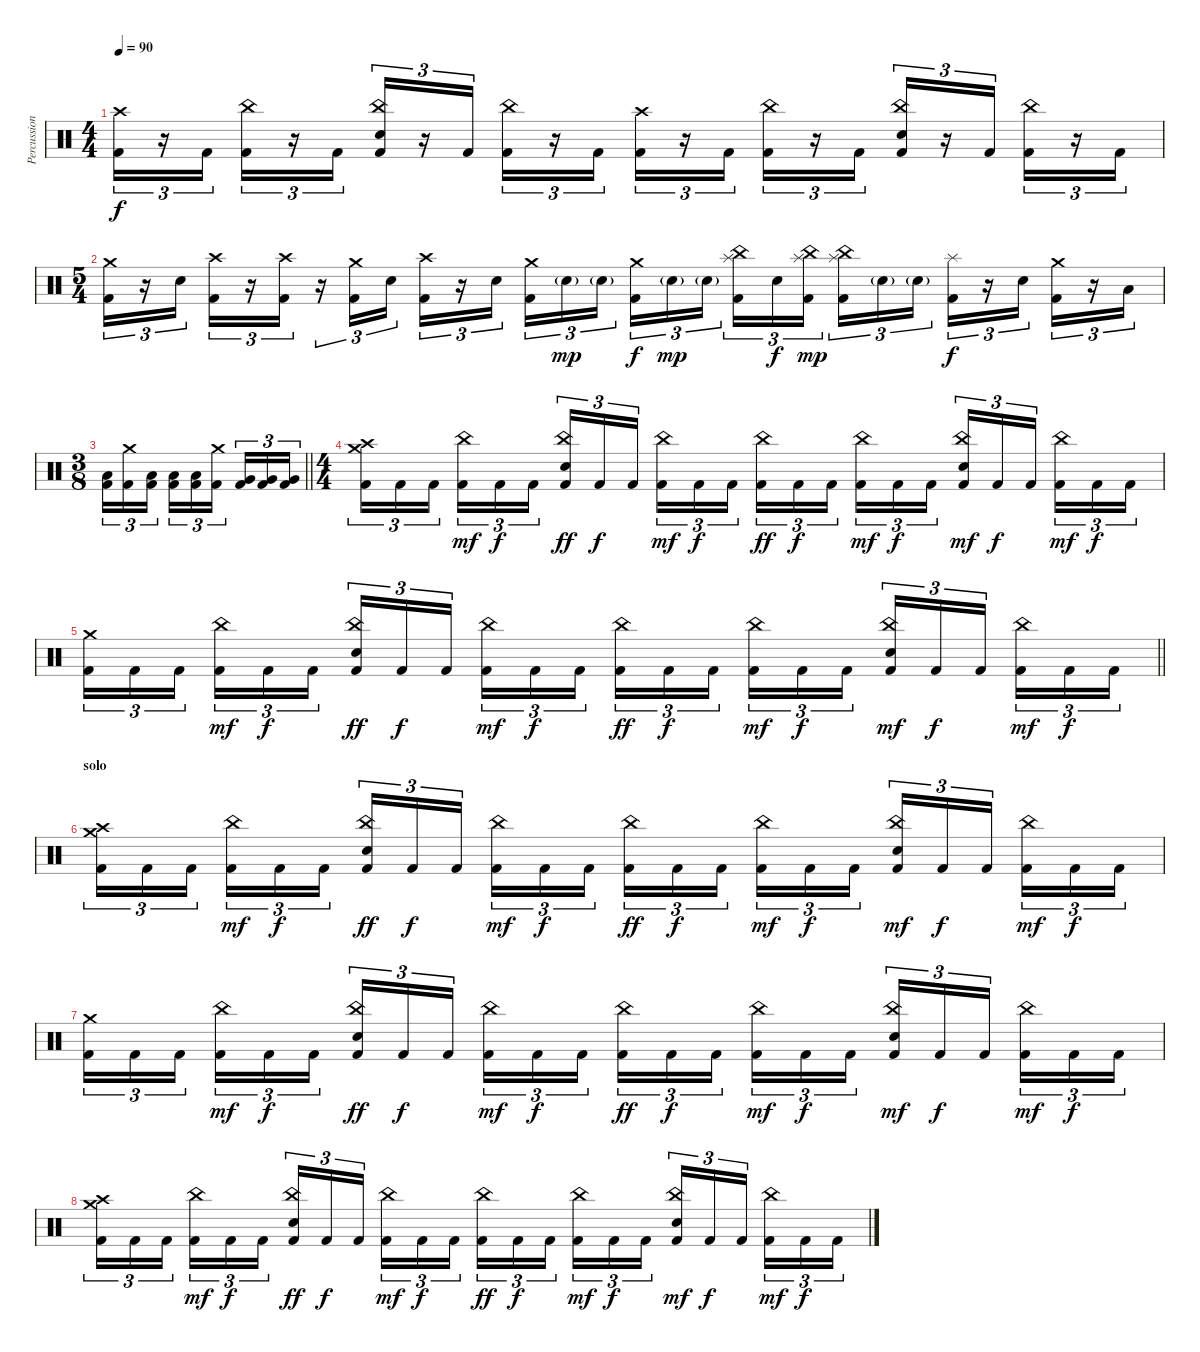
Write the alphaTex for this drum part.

\track ("Percussion" "Percussion") {instrument percussion}
\staff {score}
\articulation defaults
\ts (4 4)
\tempo 90
\clef neutral
\ks c
("Crash high (hit)" "Kick (hit) 2").16{tu (3 2) dy f} r.16{tu (3 2)} "Kick (hit) 2".16{tu (3 2)} ("China (hit)" "Kick (hit) 2").16{tu (3 2)} r.16{tu (3 2)} "Kick (hit) 2".16{tu (3 2)} ("China (hit)" "Electric Snare (hit)" "Kick (hit) 2").16{tu (3 2)} r.16{tu (3 2)} "Kick (hit) 2".16{tu (3 2)} ("China (hit)" "Kick (hit) 2").16{tu (3 2)} r.16{tu (3 2)} "Kick (hit) 2".16{tu (3 2)} ("Crash high (hit)" "Kick (hit) 2").16{tu (3 2)} r.16{tu (3 2)} "Kick (hit) 2".16{tu (3 2)} ("China (hit)" "Kick (hit) 2").16{tu (3 2)} r.16{tu (3 2)} "Kick (hit) 2".16{tu (3 2)} ("China (hit)" "Electric Snare (hit)" "Kick (hit) 2").16{tu (3 2)} r.16{tu (3 2)} "Kick (hit) 2".16{tu (3 2)} ("China (hit)" "Kick (hit) 2").16{tu (3 2)} r.16{tu (3 2)} "Kick (hit) 2".16{tu (3 2)} |
\ts (5 4)
("Crash medium (hit)" "Kick (hit) 2").16{tu (3 2)} r.16{tu (3 2)} "Electric Snare (hit)".16{tu (3 2)} ("Crash high (hit)" "Kick (hit) 2").16{tu (3 2)} r.16{tu (3 2)} ("Crash high (hit)" "Kick (hit) 2").16{tu (3 2)} r.16{tu (3 2)} ("Crash medium (hit)" "Kick (hit) 2").16{tu (3 2)} "Electric Snare (hit)".16{tu (3 2) beam splitsecondary} ("Crash high (hit)" "Kick (hit) 2").16{tu (3 2)} r.16{tu (3 2)} "Electric Snare (hit)".16{tu (3 2)} ("Crash medium (hit)" "Kick (hit) 2").16{tu (3 2)} "Electric Snare (hit)"{g}.16{tu (3 2) dy mp} "Electric Snare (hit)"{g}.16{tu (3 2) beam splitsecondary} ("Crash medium (hit)" "Kick (hit) 2").16{tu (3 2) dy f} "Electric Snare (hit)"{g}.16{tu (3 2) dy mp} "Electric Snare (hit)"{g}.16{tu (3 2)} ("Splash (hit)" "China (hit)" "Kick (hit) 2").16{tu (3 2)} "Electric Snare (hit)".16{tu (3 2) dy f} ("China (hit)" "Splash (hit)" "Kick (hit) 2").16{tu (3 2) dy mp beam splitsecondary} ("China (hit)" "Splash (hit)" "Kick (hit) 2").16{tu (3 2)} "Electric Snare (hit)"{g}.16{tu (3 2)} "Electric Snare (hit)"{g}.16{tu (3 2)} ("Splash (hit)" "Kick (hit) 2").16{tu (3 2) dy f} r.16{tu (3 2)} "Electric Snare (hit)".16{tu (3 2)} ("Crash medium (hit)" "Kick (hit) 2").16{tu (3 2)} r.16{tu (3 2)} "Low Tom (hit)".16{tu (3 2)} |
\ts (3 8)
\barLineRight lightlight
("Low Tom (hit)" "Kick (hit) 2").16{tu (3 2)} ("Crash medium (hit)" "Kick (hit) 2").16{tu (3 2)} ("Low Tom (hit)" "Kick (hit) 2").16{tu (3 2)} ("Low Tom (hit)" "Kick (hit) 2").16{tu (3 2)} ("Low Tom (hit)" "Kick (hit) 2").16{tu (3 2)} ("Crash medium (hit)" "Kick (hit) 2").16{tu (3 2)} ("Very Low Tom (hit)" "Kick (hit) 2").16{tu (3 2)} ("Very Low Tom (hit)" "Kick (hit) 2").16{tu (3 2)} ("Very Low Tom (hit)" "Kick (hit) 2").16{tu (3 2)} |
\ts (4 4)
("Crash medium (hit)" "Crash high (hit)" "Kick (hit) 2").16{tu (3 2)} "Kick (hit) 2".16{tu (3 2)} "Kick (hit) 2".16{tu (3 2) beam splitsecondary} ("China (hit)" "Kick (hit) 2").16{tu (3 2) dy mf} "Kick (hit) 2".16{tu (3 2) dy f} "Kick (hit) 2".16{tu (3 2)} ("China (hit)" "Electric Snare (hit)" "Kick (hit) 2").16{tu (3 2) dy ff} "Kick (hit) 2".16{tu (3 2) dy f} "Kick (hit) 2".16{tu (3 2) beam splitsecondary} ("China (hit)" "Kick (hit) 2").16{tu (3 2) dy mf} "Kick (hit) 2".16{tu (3 2) dy f} "Kick (hit) 2".16{tu (3 2)} ("China (hit)" "Kick (hit) 2").16{tu (3 2) dy ff} "Kick (hit) 2".16{tu (3 2) dy f} "Kick (hit) 2".16{tu (3 2) beam splitsecondary} ("China (hit)" "Kick (hit) 2").16{tu (3 2) dy mf} "Kick (hit) 2".16{tu (3 2) dy f} "Kick (hit) 2".16{tu (3 2)} ("China (hit)" "Electric Snare (hit)" "Kick (hit) 2").16{tu (3 2) dy mf} "Kick (hit) 2".16{tu (3 2) dy f} "Kick (hit) 2".16{tu (3 2) beam splitsecondary} ("China (hit)" "Kick (hit) 2").16{tu (3 2) dy mf} "Kick (hit) 2".16{tu (3 2) dy f} "Kick (hit) 2".16{tu (3 2)} |
\barLineRight lightlight
("Crash medium (hit)" "Kick (hit) 2").16{tu (3 2)} "Kick (hit) 2".16{tu (3 2)} "Kick (hit) 2".16{tu (3 2) beam splitsecondary} ("China (hit)" "Kick (hit) 2").16{tu (3 2) dy mf} "Kick (hit) 2".16{tu (3 2) dy f} "Kick (hit) 2".16{tu (3 2)} ("China (hit)" "Electric Snare (hit)" "Kick (hit) 2").16{tu (3 2) dy ff} "Kick (hit) 2".16{tu (3 2) dy f} "Kick (hit) 2".16{tu (3 2) beam splitsecondary} ("China (hit)" "Kick (hit) 2").16{tu (3 2) dy mf} "Kick (hit) 2".16{tu (3 2) dy f} "Kick (hit) 2".16{tu (3 2)} ("China (hit)" "Kick (hit) 2").16{tu (3 2) dy ff} "Kick (hit) 2".16{tu (3 2) dy f} "Kick (hit) 2".16{tu (3 2) beam splitsecondary} ("China (hit)" "Kick (hit) 2").16{tu (3 2) dy mf} "Kick (hit) 2".16{tu (3 2) dy f} "Kick (hit) 2".16{tu (3 2)} ("China (hit)" "Electric Snare (hit)" "Kick (hit) 2").16{tu (3 2) dy mf} "Kick (hit) 2".16{tu (3 2) dy f} "Kick (hit) 2".16{tu (3 2) beam splitsecondary} ("China (hit)" "Kick (hit) 2").16{tu (3 2) dy mf} "Kick (hit) 2".16{tu (3 2) dy f} "Kick (hit) 2".16{tu (3 2)} |
\section ("" "solo")
("Crash medium (hit)" "Crash high (hit)" "Kick (hit) 2").16{tu (3 2)} "Kick (hit) 2".16{tu (3 2)} "Kick (hit) 2".16{tu (3 2) beam splitsecondary} ("China (hit)" "Kick (hit) 2").16{tu (3 2) dy mf} "Kick (hit) 2".16{tu (3 2) dy f} "Kick (hit) 2".16{tu (3 2)} ("China (hit)" "Electric Snare (hit)" "Kick (hit) 2").16{tu (3 2) dy ff} "Kick (hit) 2".16{tu (3 2) dy f} "Kick (hit) 2".16{tu (3 2) beam splitsecondary} ("China (hit)" "Kick (hit) 2").16{tu (3 2) dy mf} "Kick (hit) 2".16{tu (3 2) dy f} "Kick (hit) 2".16{tu (3 2)} ("China (hit)" "Kick (hit) 2").16{tu (3 2) dy ff} "Kick (hit) 2".16{tu (3 2) dy f} "Kick (hit) 2".16{tu (3 2) beam splitsecondary} ("China (hit)" "Kick (hit) 2").16{tu (3 2) dy mf} "Kick (hit) 2".16{tu (3 2) dy f} "Kick (hit) 2".16{tu (3 2)} ("China (hit)" "Electric Snare (hit)" "Kick (hit) 2").16{tu (3 2) dy mf} "Kick (hit) 2".16{tu (3 2) dy f} "Kick (hit) 2".16{tu (3 2) beam splitsecondary} ("China (hit)" "Kick (hit) 2").16{tu (3 2) dy mf} "Kick (hit) 2".16{tu (3 2) dy f} "Kick (hit) 2".16{tu (3 2)} |
("Crash medium (hit)" "Kick (hit) 2").16{tu (3 2)} "Kick (hit) 2".16{tu (3 2)} "Kick (hit) 2".16{tu (3 2) beam splitsecondary} ("China (hit)" "Kick (hit) 2").16{tu (3 2) dy mf} "Kick (hit) 2".16{tu (3 2) dy f} "Kick (hit) 2".16{tu (3 2)} ("China (hit)" "Electric Snare (hit)" "Kick (hit) 2").16{tu (3 2) dy ff} "Kick (hit) 2".16{tu (3 2) dy f} "Kick (hit) 2".16{tu (3 2) beam splitsecondary} ("China (hit)" "Kick (hit) 2").16{tu (3 2) dy mf} "Kick (hit) 2".16{tu (3 2) dy f} "Kick (hit) 2".16{tu (3 2)} ("China (hit)" "Kick (hit) 2").16{tu (3 2) dy ff} "Kick (hit) 2".16{tu (3 2) dy f} "Kick (hit) 2".16{tu (3 2) beam splitsecondary} ("China (hit)" "Kick (hit) 2").16{tu (3 2) dy mf} "Kick (hit) 2".16{tu (3 2) dy f} "Kick (hit) 2".16{tu (3 2)} ("China (hit)" "Electric Snare (hit)" "Kick (hit) 2").16{tu (3 2) dy mf} "Kick (hit) 2".16{tu (3 2) dy f} "Kick (hit) 2".16{tu (3 2) beam splitsecondary} ("China (hit)" "Kick (hit) 2").16{tu (3 2) dy mf} "Kick (hit) 2".16{tu (3 2) dy f} "Kick (hit) 2".16{tu (3 2)} |
("Crash medium (hit)" "Crash high (hit)" "Kick (hit) 2").16{tu (3 2)} "Kick (hit) 2".16{tu (3 2)} "Kick (hit) 2".16{tu (3 2) beam splitsecondary} ("China (hit)" "Kick (hit) 2").16{tu (3 2) dy mf} "Kick (hit) 2".16{tu (3 2) dy f} "Kick (hit) 2".16{tu (3 2)} ("China (hit)" "Electric Snare (hit)" "Kick (hit) 2").16{tu (3 2) dy ff} "Kick (hit) 2".16{tu (3 2) dy f} "Kick (hit) 2".16{tu (3 2) beam splitsecondary} ("China (hit)" "Kick (hit) 2").16{tu (3 2) dy mf} "Kick (hit) 2".16{tu (3 2) dy f} "Kick (hit) 2".16{tu (3 2)} ("China (hit)" "Kick (hit) 2").16{tu (3 2) dy ff} "Kick (hit) 2".16{tu (3 2) dy f} "Kick (hit) 2".16{tu (3 2) beam splitsecondary} ("China (hit)" "Kick (hit) 2").16{tu (3 2) dy mf} "Kick (hit) 2".16{tu (3 2) dy f} "Kick (hit) 2".16{tu (3 2)} ("China (hit)" "Electric Snare (hit)" "Kick (hit) 2").16{tu (3 2) dy mf} "Kick (hit) 2".16{tu (3 2) dy f} "Kick (hit) 2".16{tu (3 2) beam splitsecondary} ("China (hit)" "Kick (hit) 2").16{tu (3 2) dy mf} "Kick (hit) 2".16{tu (3 2) dy f} "Kick (hit) 2".16{tu (3 2)}
